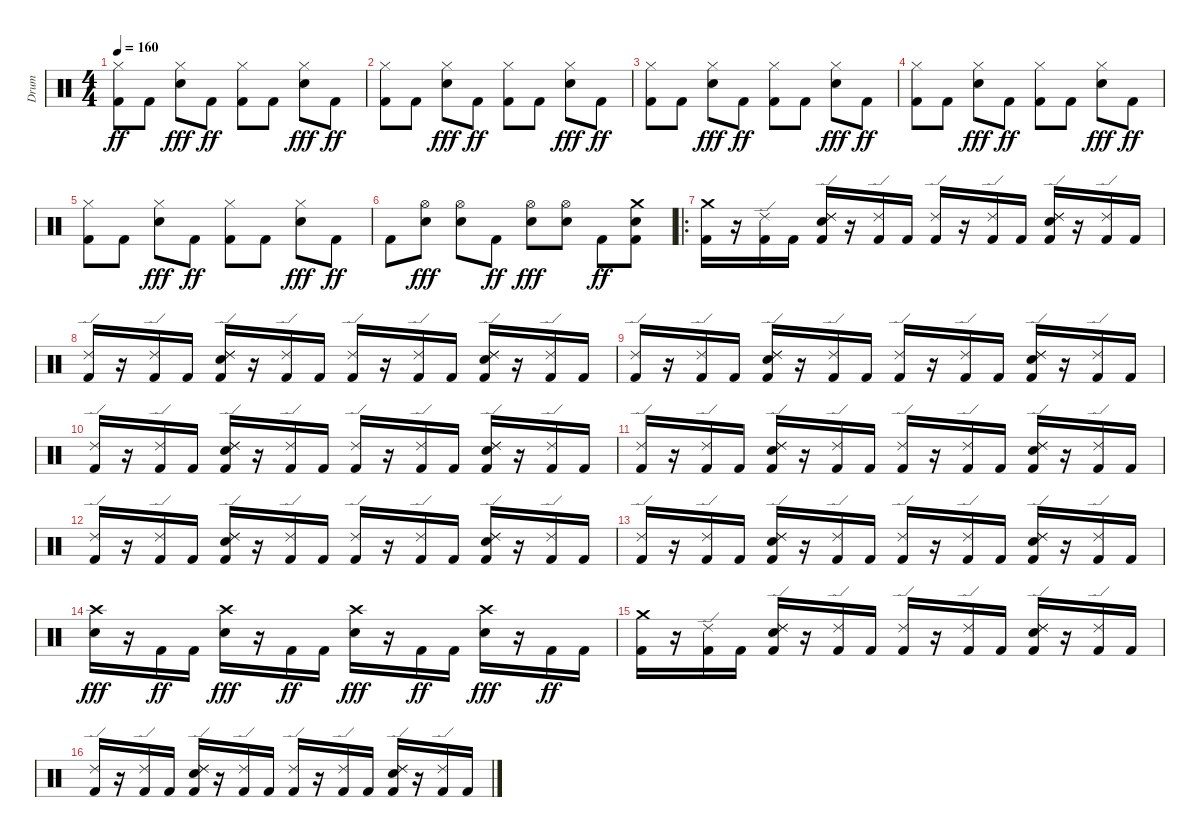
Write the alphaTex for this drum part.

\track ("Drum" "Drum") {instrument percussion}
\staff {score}
\articulation defaults
\ts (4 4)
\tempo 160
\clef neutral
\ks c
("Hi-Hat (closed)" "Kick (hit) 2").8{dy ff} "Kick (hit) 2".8 ("Hi-Hat (closed)" "Snare (hit) 2").8{dy fff} "Kick (hit) 2".8{dy ff} ("Hi-Hat (closed)" "Kick (hit) 2").8 "Kick (hit) 2".8 ("Hi-Hat (closed)" "Snare (hit) 2").8{dy fff} "Kick (hit) 2".8{dy ff} |
("Hi-Hat (closed)" "Kick (hit) 2").8 "Kick (hit) 2".8 ("Hi-Hat (closed)" "Snare (hit) 2").8{dy fff} "Kick (hit) 2".8{dy ff} ("Hi-Hat (closed)" "Kick (hit) 2").8 "Kick (hit) 2".8 ("Hi-Hat (closed)" "Snare (hit) 2").8{dy fff} "Kick (hit) 2".8{dy ff} |
("Hi-Hat (closed)" "Kick (hit) 2").8 "Kick (hit) 2".8 ("Hi-Hat (closed)" "Snare (hit) 2").8{dy fff} "Kick (hit) 2".8{dy ff} ("Hi-Hat (closed)" "Kick (hit) 2").8 "Kick (hit) 2".8 ("Hi-Hat (closed)" "Snare (hit) 2").8{dy fff} "Kick (hit) 2".8{dy ff} |
("Hi-Hat (closed)" "Kick (hit) 2").8 "Kick (hit) 2".8 ("Hi-Hat (closed)" "Snare (hit) 2").8{dy fff} "Kick (hit) 2".8{dy ff} ("Hi-Hat (closed)" "Kick (hit) 2").8 "Kick (hit) 2".8 ("Hi-Hat (closed)" "Snare (hit) 2").8{dy fff} "Kick (hit) 2".8{dy ff} |
("Hi-Hat (closed)" "Kick (hit) 2").8 "Kick (hit) 2".8 ("Hi-Hat (closed)" "Snare (hit) 2").8{dy fff} "Kick (hit) 2".8{dy ff} ("Hi-Hat (closed)" "Kick (hit) 2").8 "Kick (hit) 2".8 ("Hi-Hat (closed)" "Snare (hit) 2").8{dy fff} "Kick (hit) 2".8{dy ff} |
"Kick (hit) 2".8 ("Hi-Hat (open)" "Snare (hit) 2").8{dy fff} ("Hi-Hat (open)" "Snare (hit) 2").8 "Kick (hit) 2".8{dy ff} ("Hi-Hat (open)" "Snare (hit) 2").8{dy fff} ("Hi-Hat (open)" "Snare (hit) 2").8 "Kick (hit) 2".8{dy ff} ("Crash medium (hit)" "Snare (hit) 2" "Kick (hit) 2").8 |
\ro
("Crash medium (hit)" "Kick (hit) 2").16 r.16 ("Ride (edge) 2" "Kick (hit) 2").16 "Kick (hit) 2".16 ("Ride (edge) 2" "Snare (hit) 2" "Kick (hit) 2" "Ride (edge) 2").16 r.16 ("Ride (edge) 2" "Kick (hit) 2").16 "Kick (hit) 2".16 ("Ride (edge) 2" "Kick (hit) 2").16 r.16 ("Ride (edge) 2" "Kick (hit) 2").16 "Kick (hit) 2".16 ("Ride (edge) 2" "Snare (hit) 2" "Kick (hit) 2" "Ride (edge) 2").16 r.16 ("Ride (edge) 2" "Kick (hit) 2").16 "Kick (hit) 2".16 |
("Ride (edge) 2" "Kick (hit) 2").16 r.16 ("Ride (edge) 2" "Kick (hit) 2").16 "Kick (hit) 2".16 ("Ride (edge) 2" "Snare (hit) 2" "Kick (hit) 2" "Ride (edge) 2").16 r.16 ("Ride (edge) 2" "Kick (hit) 2").16 "Kick (hit) 2".16 ("Ride (edge) 2" "Kick (hit) 2").16 r.16 ("Ride (edge) 2" "Kick (hit) 2").16 "Kick (hit) 2".16 ("Ride (edge) 2" "Snare (hit) 2" "Kick (hit) 2" "Ride (edge) 2").16 r.16 ("Ride (edge) 2" "Kick (hit) 2").16 "Kick (hit) 2".16 |
("Ride (edge) 2" "Kick (hit) 2").16 r.16 ("Ride (edge) 2" "Kick (hit) 2").16 "Kick (hit) 2".16 ("Ride (edge) 2" "Snare (hit) 2" "Kick (hit) 2" "Ride (edge) 2").16 r.16 ("Ride (edge) 2" "Kick (hit) 2").16 "Kick (hit) 2".16 ("Ride (edge) 2" "Kick (hit) 2").16 r.16 ("Ride (edge) 2" "Kick (hit) 2").16 "Kick (hit) 2".16 ("Ride (edge) 2" "Snare (hit) 2" "Kick (hit) 2" "Ride (edge) 2").16 r.16 ("Ride (edge) 2" "Kick (hit) 2").16 "Kick (hit) 2".16 |
("Ride (edge) 2" "Kick (hit) 2").16 r.16 ("Ride (edge) 2" "Kick (hit) 2").16 "Kick (hit) 2".16 ("Ride (edge) 2" "Snare (hit) 2" "Kick (hit) 2" "Ride (edge) 2").16 r.16 ("Ride (edge) 2" "Kick (hit) 2").16 "Kick (hit) 2".16 ("Ride (edge) 2" "Kick (hit) 2").16 r.16 ("Ride (edge) 2" "Kick (hit) 2").16 "Kick (hit) 2".16 ("Ride (edge) 2" "Snare (hit) 2" "Kick (hit) 2" "Ride (edge) 2").16 r.16 ("Ride (edge) 2" "Kick (hit) 2").16 "Kick (hit) 2".16 |
("Ride (edge) 2" "Kick (hit) 2").16 r.16 ("Ride (edge) 2" "Kick (hit) 2").16 "Kick (hit) 2".16 ("Ride (edge) 2" "Snare (hit) 2" "Kick (hit) 2" "Ride (edge) 2").16 r.16 ("Ride (edge) 2" "Kick (hit) 2").16 "Kick (hit) 2".16 ("Ride (edge) 2" "Kick (hit) 2").16 r.16 ("Ride (edge) 2" "Kick (hit) 2").16 "Kick (hit) 2".16 ("Ride (edge) 2" "Snare (hit) 2" "Kick (hit) 2" "Ride (edge) 2").16 r.16 ("Ride (edge) 2" "Kick (hit) 2").16 "Kick (hit) 2".16 |
("Ride (edge) 2" "Kick (hit) 2").16 r.16 ("Ride (edge) 2" "Kick (hit) 2").16 "Kick (hit) 2".16 ("Ride (edge) 2" "Snare (hit) 2" "Kick (hit) 2" "Ride (edge) 2").16 r.16 ("Ride (edge) 2" "Kick (hit) 2").16 "Kick (hit) 2".16 ("Ride (edge) 2" "Kick (hit) 2").16 r.16 ("Ride (edge) 2" "Kick (hit) 2").16 "Kick (hit) 2".16 ("Ride (edge) 2" "Snare (hit) 2" "Kick (hit) 2" "Ride (edge) 2").16 r.16 ("Ride (edge) 2" "Kick (hit) 2").16 "Kick (hit) 2".16 |
("Ride (edge) 2" "Kick (hit) 2").16 r.16 ("Ride (edge) 2" "Kick (hit) 2").16 "Kick (hit) 2".16 ("Ride (edge) 2" "Snare (hit) 2" "Kick (hit) 2" "Ride (edge) 2").16 r.16 ("Ride (edge) 2" "Kick (hit) 2").16 "Kick (hit) 2".16 ("Ride (edge) 2" "Kick (hit) 2").16 r.16 ("Ride (edge) 2" "Kick (hit) 2").16 "Kick (hit) 2".16 ("Ride (edge) 2" "Snare (hit) 2" "Kick (hit) 2" "Ride (edge) 2").16 r.16 ("Ride (edge) 2" "Kick (hit) 2").16 "Kick (hit) 2".16 |
("Crash high (hit)" "Snare (hit) 2").16{dy fff} r.16 "Kick (hit) 2".16{dy ff} "Kick (hit) 2".16 ("Crash high (hit)" "Snare (hit) 2").16{dy fff} r.16 "Kick (hit) 2".16{dy ff} "Kick (hit) 2".16 ("Crash high (hit)" "Snare (hit) 2").16{dy fff} r.16 "Kick (hit) 2".16{dy ff} "Kick (hit) 2".16 ("Crash high (hit)" "Snare (hit) 2").16{dy fff} r.16 "Kick (hit) 2".16{dy ff} "Kick (hit) 2".16 |
("Crash medium (hit)" "Kick (hit) 2").16 r.16 ("Ride (edge) 2" "Kick (hit) 2").16 "Kick (hit) 2".16 ("Ride (edge) 2" "Snare (hit) 2" "Kick (hit) 2" "Ride (edge) 2").16 r.16 ("Ride (edge) 2" "Kick (hit) 2").16 "Kick (hit) 2".16 ("Ride (edge) 2" "Kick (hit) 2").16 r.16 ("Ride (edge) 2" "Kick (hit) 2").16 "Kick (hit) 2".16 ("Ride (edge) 2" "Snare (hit) 2" "Kick (hit) 2" "Ride (edge) 2").16 r.16 ("Ride (edge) 2" "Kick (hit) 2").16 "Kick (hit) 2".16 |
("Ride (edge) 2" "Kick (hit) 2").16 r.16 ("Ride (edge) 2" "Kick (hit) 2").16 "Kick (hit) 2".16 ("Ride (edge) 2" "Snare (hit) 2" "Kick (hit) 2" "Ride (edge) 2").16 r.16 ("Ride (edge) 2" "Kick (hit) 2").16 "Kick (hit) 2".16 ("Ride (edge) 2" "Kick (hit) 2").16 r.16 ("Ride (edge) 2" "Kick (hit) 2").16 "Kick (hit) 2".16 ("Ride (edge) 2" "Snare (hit) 2" "Kick (hit) 2" "Ride (edge) 2").16 r.16 ("Ride (edge) 2" "Kick (hit) 2").16 "Kick (hit) 2".16
